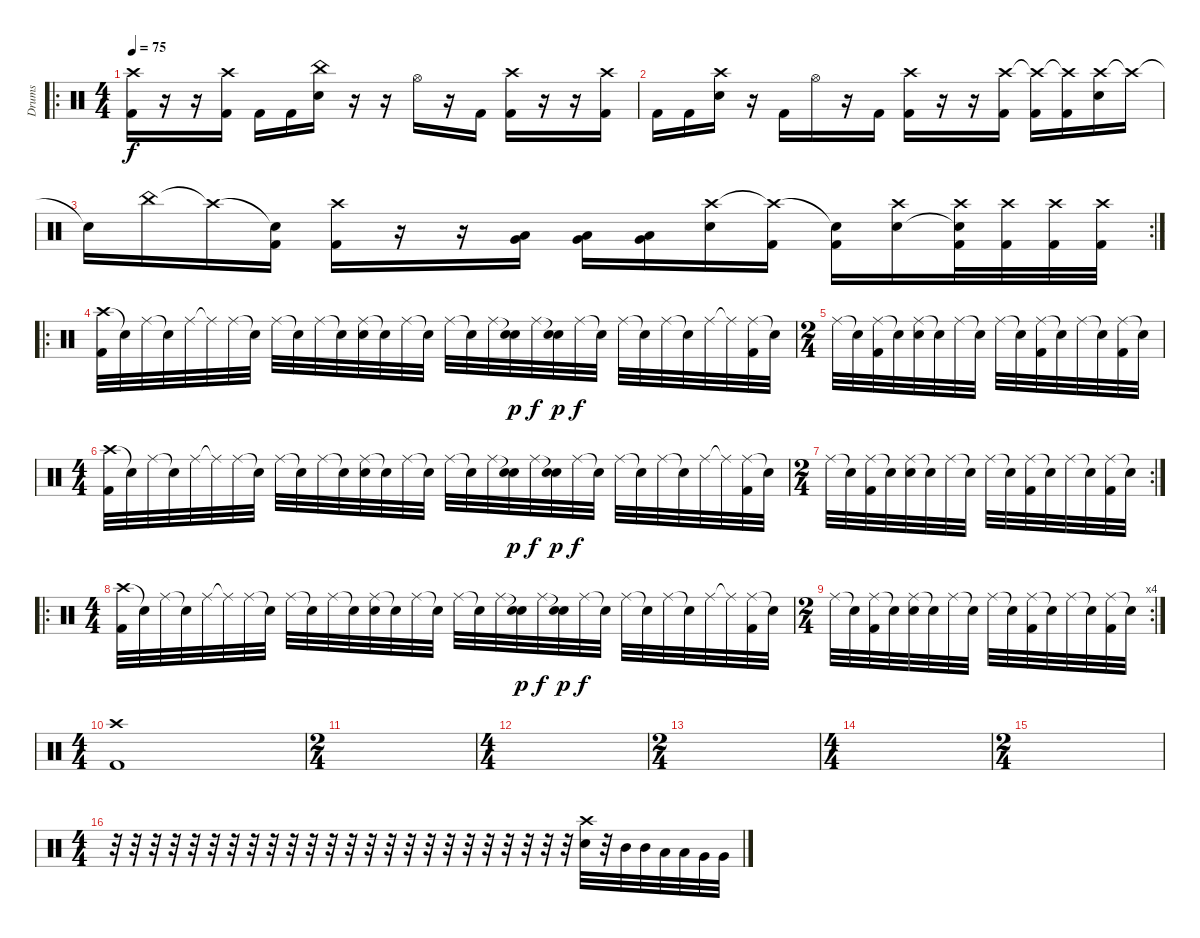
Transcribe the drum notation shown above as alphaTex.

\track ("Drums" "Drums") {instrument percussion}
\staff {score}
\articulation defaults
\ro
\ts (4 4)
\tempo 75
\clef neutral
\ks c
("Crash high (hit)" "Kick (hit) 2").16{dy f} r.16 r.16 ("Crash high (hit)" "Kick (hit) 2").16 "Kick (hit) 2".16 "Kick (hit) 2".16 ("China (hit)" "Electric Snare (hit)").16 r.16 r.16 "Hi-Hat (open)".16 r.16 "Kick (hit) 2".16 ("Crash high (hit)" "Kick (hit) 2").16 r.16 r.16 ("Crash high (hit)" "Kick (hit) 2").16 |
"Kick (hit) 2".16 "Kick (hit) 2".16 ("Crash high (hit)" "Electric Snare (hit)").16 r.16 "Kick (hit) 2".16 "Hi-Hat (open)".16 r.16 "Kick (hit) 2".16 ("Crash high (hit)" "Kick (hit) 2").16 r.16 r.16 ("Crash high (hit)" "Kick (hit) 2").16 ("Crash high (hit)"{t} "Kick (hit) 2").16 ("Crash high (hit)"{t} "Kick (hit) 2").16 ("Crash high (hit)" "Electric Snare (hit)").16 "Crash high (hit)"{t}.16 |
\rc 2 "Snare (hit)"{t}.16 "China (hit)".16 "Crash high (hit)"{t}.16
("Snare (hit)"{t} "Kick (hit) 2").16 ("Crash high (hit)" "Kick (hit) 2").16 r.16 r.16 ("Low Floor Tom (hit)" "Very Low Tom (hit)").16 ("Low Floor Tom (hit)" "Very Low Tom (hit)").16 ("Low Floor Tom (hit)" "Very Low Tom (hit)").16 ("Crash high (hit)" "Electric Snare (hit)").16 ("Crash high (hit)"{t} "Kick (hit) 2").16 ("Snare (hit)"{t} "Kick (hit) 2").16 ("Crash high (hit)" "Electric Snare (hit)").16 ("Crash high (hit)" "Electric Snare (hit)"{t} "Kick (hit) 2").32 ("Crash high (hit)" "Kick (hit) 2").32 ("Crash high (hit)" "Kick (hit) 2").32 ("Crash high (hit)" "Kick (hit) 2").32 |
\ro
("Crash high (hit)" "Kick (hit) 2").32 "Snare (hit)"{t}.32 "Ride (middle)".32 "Snare (hit)"{t}.32 "Ride (middle)".32 "Ride (middle)"{t}.32 "Ride (middle)".32 "Snare (hit)"{t}.32 "Ride (middle)".32 "Snare (hit)"{t}.32 "Ride (middle)".32 "Snare (hit)"{t}.32 ("Ride (middle)" "Electric Snare (hit)").32 "Snare (hit)"{t}.32 "Ride (middle)".32 "Snare (hit)"{t}.32 "Ride (middle)".32 "Snare (hit)"{t}.32 "Ride (middle)".32 ("Snare (hit)"{t} "Electric Snare (hit)").32{dy p} "Ride (middle)".32{dy f} ("Snare (hit)"{t} "Electric Snare (hit)").32{dy p} "Ride (middle)".32{dy f} "Snare (hit)"{t}.32 "Ride (middle)".32 "Snare (hit)"{t}.32 "Ride (middle)".32 "Snare (hit)"{t}.32 "Ride (middle)".32 "Ride (middle)"{t}.32 ("Ride (middle)" "Kick (hit) 2").32 "Snare (hit)"{t}.32 |
\ts (2 4)
"Ride (middle)".32 "Snare (hit)"{t}.32 ("Ride (middle)" "Kick (hit) 2").32 "Snare (hit)"{t}.32 ("Ride (middle)" "Electric Snare (hit)").32 "Snare (hit)"{t}.32 "Ride (middle)".32 "Snare (hit)"{t}.32 "Ride (middle)".32 "Snare (hit)"{t}.32 ("Ride (middle)" "Kick (hit) 2").32 "Snare (hit)"{t}.32 "Ride (middle)".32 "Snare (hit)"{t}.32 ("Ride (middle)" "Kick (hit) 2").32 "Snare (hit)"{t}.32 |
\ts (4 4)
("Crash high (hit)" "Kick (hit) 2").32 "Snare (hit)"{t}.32 "Ride (middle)".32 "Snare (hit)"{t}.32 "Ride (middle)".32 "Ride (middle)"{t}.32 "Ride (middle)".32 "Snare (hit)"{t}.32 "Ride (middle)".32 "Snare (hit)"{t}.32 "Ride (middle)".32 "Snare (hit)"{t}.32 ("Ride (middle)" "Electric Snare (hit)").32 "Snare (hit)"{t}.32 "Ride (middle)".32 "Snare (hit)"{t}.32 "Ride (middle)".32 "Snare (hit)"{t}.32 "Ride (middle)".32 ("Snare (hit)"{t} "Electric Snare (hit)").32{dy p} "Ride (middle)".32{dy f} ("Snare (hit)"{t} "Electric Snare (hit)").32{dy p} "Ride (middle)".32{dy f} "Snare (hit)"{t}.32 "Ride (middle)".32 "Snare (hit)"{t}.32 "Ride (middle)".32 "Snare (hit)"{t}.32 "Ride (middle)".32 "Ride (middle)"{t}.32 ("Ride (middle)" "Kick (hit) 2").32 "Snare (hit)"{t}.32 |
\rc 2
\ts (2 4)
"Ride (middle)".32 "Snare (hit)"{t}.32 ("Ride (middle)" "Kick (hit) 2").32 "Snare (hit)"{t}.32 ("Ride (middle)" "Electric Snare (hit)").32 "Snare (hit)"{t}.32 "Ride (middle)".32 "Snare (hit)"{t}.32 "Ride (middle)".32 "Snare (hit)"{t}.32 ("Ride (middle)" "Kick (hit) 2").32 "Snare (hit)"{t}.32 "Ride (middle)".32 "Snare (hit)"{t}.32 ("Ride (middle)" "Kick (hit) 2").32 "Snare (hit)"{t}.32 |
\ro
\ts (4 4)
("Crash high (hit)" "Kick (hit) 2").32 "Snare (hit)"{t}.32 "Ride (middle)".32 "Snare (hit)"{t}.32 "Ride (middle)".32 "Ride (middle)"{t}.32 "Ride (middle)".32 "Snare (hit)"{t}.32 "Ride (middle)".32 "Snare (hit)"{t}.32 "Ride (middle)".32 "Snare (hit)"{t}.32 ("Ride (middle)" "Electric Snare (hit)").32 "Snare (hit)"{t}.32 "Ride (middle)".32 "Snare (hit)"{t}.32 "Ride (middle)".32 "Snare (hit)"{t}.32 "Ride (middle)".32 ("Snare (hit)"{t} "Electric Snare (hit)").32{dy p} "Ride (middle)".32{dy f} ("Snare (hit)"{t} "Electric Snare (hit)").32{dy p} "Ride (middle)".32{dy f} "Snare (hit)"{t}.32 "Ride (middle)".32 "Snare (hit)"{t}.32 "Ride (middle)".32 "Snare (hit)"{t}.32 "Ride (middle)".32 "Ride (middle)"{t}.32 ("Ride (middle)" "Kick (hit) 2").32 "Snare (hit)"{t}.32 |
\rc 4
\ts (2 4)
"Ride (middle)".32 "Snare (hit)"{t}.32 ("Ride (middle)" "Kick (hit) 2").32 "Snare (hit)"{t}.32 ("Ride (middle)" "Electric Snare (hit)").32 "Snare (hit)"{t}.32 "Ride (middle)".32 "Snare (hit)"{t}.32 "Ride (middle)".32 "Snare (hit)"{t}.32 ("Ride (middle)" "Kick (hit) 2").32 "Snare (hit)"{t}.32 "Ride (middle)".32 "Snare (hit)"{t}.32 ("Ride (middle)" "Kick (hit) 2").32 "Snare (hit)"{t}.32 |
\ts (4 4)
("Kick (hit) 2" "Crash high (hit)").1 |
\ts (2 4)
|
\ts (4 4)
|
\ts (2 4)
|
\ts (4 4)
|
\ts (2 4)
|
\ts (4 4)
r.32 r.32 r.32 r.32 r.32 r.32 r.32 r.32 r.32 r.32 r.32 r.32 r.32 r.32 r.32 r.32 r.32 r.32 r.32 r.32 r.32 r.32 r.32 r.32 ("Crash high (hit)" "Electric Snare (hit)").32 r.32 "Mid Tom (hit)".32 "Mid Tom (hit)".32 "Low Tom (hit)".32 "Low Tom (hit)".32 "Very Low Tom (hit)".32 "Very Low Tom (hit)".32
